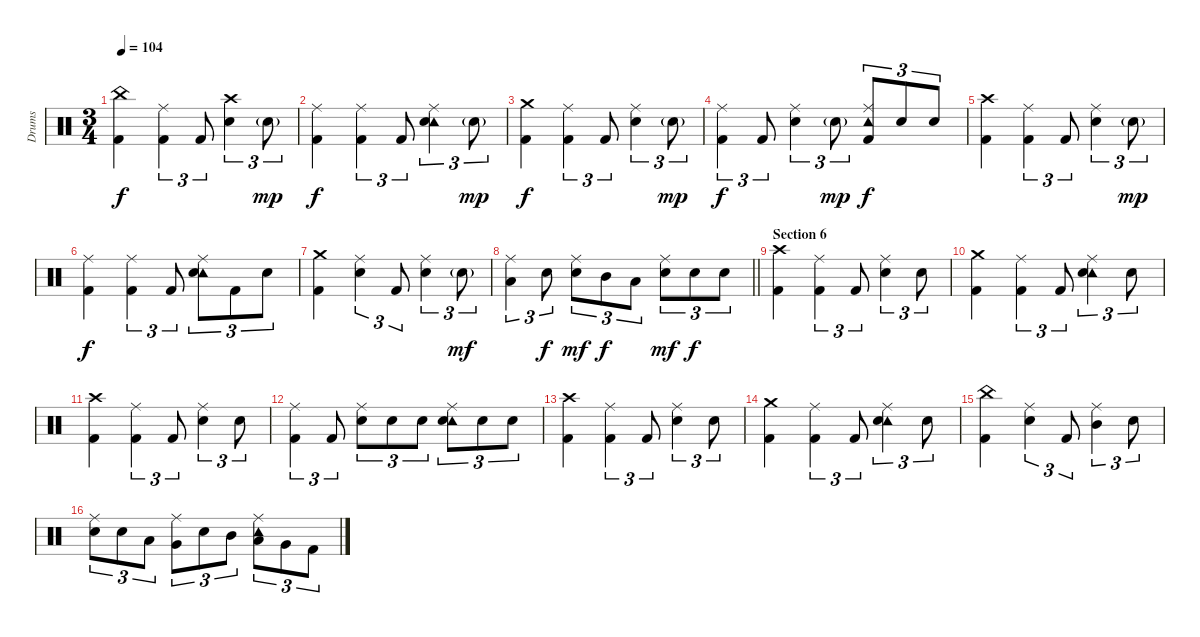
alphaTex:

\track ("Drums" "Drums") {instrument percussion}
\staff {score}
\articulation defaults
\ts (3 4)
\tempo 104
\clef neutral
\ks c
("China (hit)" "Kick (hit) 2").4{dy f} ("Ride (middle)" "Kick (hit) 2").4{tu (3 2)} "Kick (hit) 2".8{tu (3 2)} ("Crash high (hit)" "Snare (hit) 2").4{tu (3 2)} "Snare (hit) 2"{g}.8{tu (3 2) dy mp} |
("Ride (middle)" "Kick (hit) 2").4{dy f} ("Ride (middle)" "Kick (hit) 2").4{tu (3 2)} "Kick (hit) 2".8{tu (3 2)} ("Ride (middle)" "Tambourine (hit)" "Snare (hit) 2").4{tu (3 2)} "Snare (hit) 2"{g}.8{tu (3 2) dy mp} |
("Crash medium (hit)" "Kick (hit) 2").4{dy f} ("Ride (middle)" "Kick (hit) 2").4{tu (3 2)} "Kick (hit) 2".8{tu (3 2)} ("Ride (middle)" "Snare (hit) 2").4{tu (3 2)} "Snare (hit) 2"{g}.8{tu (3 2) dy mp} |
("Ride (middle)" "Kick (hit) 2").4{tu (3 2) dy f} "Kick (hit) 2".8{tu (3 2)} ("Ride (middle)" "Snare (hit) 2").4{tu (3 2)} "Snare (hit) 2"{g}.8{tu (3 2) dy mp} ("Ride (middle)" "Tambourine (hit)" "Kick (hit) 2").8{tu (3 2) dy f} "Snare (hit) 2".8{tu (3 2)} "Snare (hit) 2".8{tu (3 2)} |
("Crash high (hit)" "Kick (hit) 2").4 ("Ride (middle)" "Kick (hit) 2").4{tu (3 2)} "Kick (hit) 2".8{tu (3 2)} ("Ride (middle)" "Snare (hit) 2").4{tu (3 2)} "Snare (hit) 2"{g}.8{tu (3 2) dy mp} |
("Ride (middle)" "Kick (hit) 2").4{dy f} ("Ride (middle)" "Kick (hit) 2").4{tu (3 2)} "Kick (hit) 2".8{tu (3 2)} ("Ride (middle)" "Tambourine (hit)" "Snare (hit) 2").8{tu (3 2)} "Kick (hit) 2".8{tu (3 2)} "Snare (hit) 2".8{tu (3 2)} |
("Crash medium (hit)" "Kick (hit) 2").4 ("Ride (middle)" "Snare (hit) 2").4{tu (3 2)} "Kick (hit) 2".8{tu (3 2)} ("Ride (middle)" "Snare (hit) 2").4{tu (3 2)} "Snare (hit) 2"{g}.8{tu (3 2) dy mf} |
\barLineRight lightlight
("Ride (middle)" "Low Tom (hit)").4{tu (3 2)} "Snare (hit) 2".8{tu (3 2) dy f} ("Ride (middle)" "Snare (hit) 2").8{tu (3 2) dy mf} "Mid Tom (hit)".8{tu (3 2) dy f} "Low Tom (hit)".8{tu (3 2)} ("Ride (middle)" "Snare (hit) 2").8{tu (3 2) dy mf} "Snare (hit) 2".8{tu (3 2) dy f} "Snare (hit) 2".8{tu (3 2)} |
\section ("" "Section 6")
("Crash high (hit)" "Kick (hit) 2").4 ("Ride (middle)" "Kick (hit) 2").4{tu (3 2)} "Kick (hit) 2".8{tu (3 2)} ("Ride (middle)" "Snare (hit) 2").4{tu (3 2)} "Snare (hit) 2".8{tu (3 2)} |
("Crash medium (hit)" "Kick (hit) 2").4 ("Ride (middle)" "Kick (hit) 2").4{tu (3 2)} "Kick (hit) 2".8{tu (3 2)} ("Ride (middle)" "Tambourine (hit)" "Snare (hit) 2").4{tu (3 2)} "Snare (hit) 2".8{tu (3 2)} |
("Crash high (hit)" "Kick (hit) 2").4 ("Ride (middle)" "Kick (hit) 2").4{tu (3 2)} "Kick (hit) 2".8{tu (3 2)} ("Ride (middle)" "Snare (hit) 2").4{tu (3 2)} "Snare (hit) 2".8{tu (3 2)} |
("Ride (middle)" "Kick (hit) 2").4{tu (3 2)} "Kick (hit) 2".8{tu (3 2)} ("Ride (middle)" "Snare (hit) 2").8{tu (3 2)} "Snare (hit) 2".8{tu (3 2)} "Snare (hit) 2".8{tu (3 2)} ("Ride (middle)" "Tambourine (hit)" "Snare (hit) 2").8{tu (3 2)} "Snare (hit) 2".8{tu (3 2)} "Snare (hit) 2".8{tu (3 2)} |
("Crash high (hit)" "Kick (hit) 2").4 ("Ride (middle)" "Kick (hit) 2").4{tu (3 2)} "Kick (hit) 2".8{tu (3 2)} ("Ride (middle)" "Snare (hit) 2").4{tu (3 2)} "Snare (hit) 2".8{tu (3 2)} |
("Crash medium (hit)" "Kick (hit) 2").4 ("Ride (middle)" "Kick (hit) 2").4{tu (3 2)} "Kick (hit) 2".8{tu (3 2)} ("Ride (middle)" "Tambourine (hit)" "Snare (hit) 2").4{tu (3 2)} "Snare (hit) 2".8{tu (3 2)} |
("China (hit)" "Kick (hit) 2").4 ("Ride (middle)" "Snare (hit) 2").4{tu (3 2)} "Kick (hit) 2".8{tu (3 2)} ("Ride (middle)" "Mid Tom (hit)").4{tu (3 2)} "Snare (hit) 2".8{tu (3 2)} |
("Ride (middle)" "Snare (hit) 2").8{tu (3 2)} "Snare (hit) 2".8{tu (3 2)} "Low Tom (hit)".8{tu (3 2)} ("Ride (middle)" "Very Low Tom (hit)").8{tu (3 2)} "Snare (hit) 2".8{tu (3 2)} "Mid Tom (hit)".8{tu (3 2)} ("Ride (middle)" "Tambourine (hit)" "Low Tom (hit)").8{tu (3 2)} "Very Low Tom (hit)".8{tu (3 2)} "Kick (hit) 2".8{tu (3 2)}
